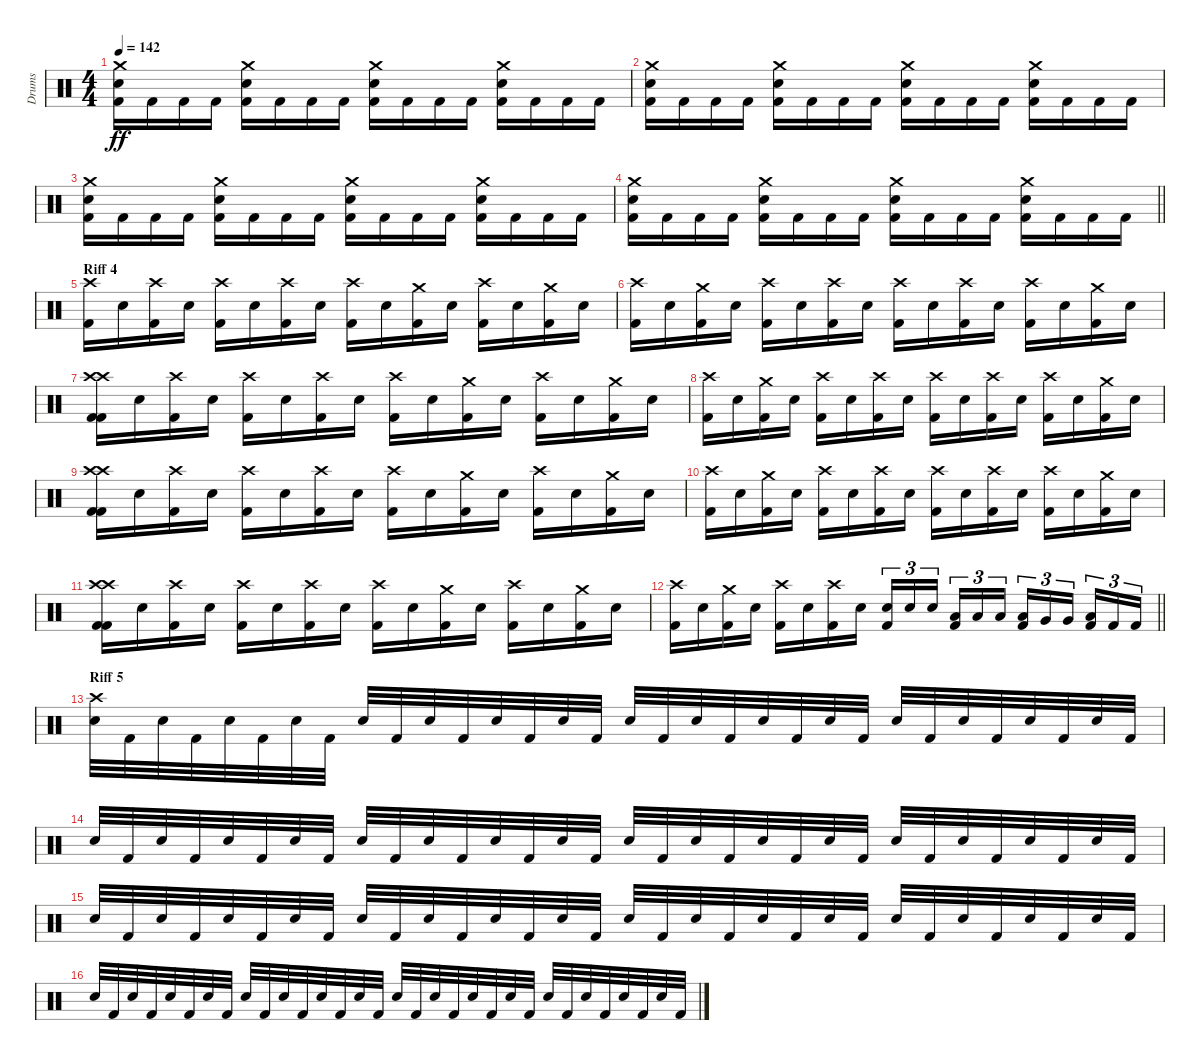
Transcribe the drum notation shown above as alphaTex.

\track ("Drums" "Drums") {instrument percussion}
\staff {score}
\articulation defaults
\ts (4 4)
\tempo 142
\clef neutral
\ks c
("Crash medium (hit)" "Kick (hit) 2" "Snare (hit) 2").16{dy ff} "Kick (hit) 2".16 "Kick (hit) 2".16 "Kick (hit) 2".16 ("Crash medium (hit)" "Kick (hit) 2" "Snare (hit) 2").16 "Kick (hit) 2".16 "Kick (hit) 2".16 "Kick (hit) 2".16 ("Crash medium (hit)" "Kick (hit) 2" "Snare (hit) 2").16 "Kick (hit) 2".16 "Kick (hit) 2".16 "Kick (hit) 2".16 ("Crash medium (hit)" "Kick (hit) 2" "Snare (hit) 2").16 "Kick (hit) 2".16 "Kick (hit) 2".16 "Kick (hit) 2".16 |
("Crash medium (hit)" "Kick (hit) 2" "Snare (hit) 2").16 "Kick (hit) 2".16 "Kick (hit) 2".16 "Kick (hit) 2".16 ("Crash medium (hit)" "Kick (hit) 2" "Snare (hit) 2").16 "Kick (hit) 2".16 "Kick (hit) 2".16 "Kick (hit) 2".16 ("Crash medium (hit)" "Kick (hit) 2" "Snare (hit) 2").16 "Kick (hit) 2".16 "Kick (hit) 2".16 "Kick (hit) 2".16 ("Crash medium (hit)" "Kick (hit) 2" "Snare (hit) 2").16 "Kick (hit) 2".16 "Kick (hit) 2".16 "Kick (hit) 2".16 |
("Crash medium (hit)" "Kick (hit) 2" "Snare (hit) 2").16 "Kick (hit) 2".16 "Kick (hit) 2".16 "Kick (hit) 2".16 ("Crash medium (hit)" "Kick (hit) 2" "Snare (hit) 2").16 "Kick (hit) 2".16 "Kick (hit) 2".16 "Kick (hit) 2".16 ("Crash medium (hit)" "Kick (hit) 2" "Snare (hit) 2").16 "Kick (hit) 2".16 "Kick (hit) 2".16 "Kick (hit) 2".16 ("Crash medium (hit)" "Kick (hit) 2" "Snare (hit) 2").16 "Kick (hit) 2".16 "Kick (hit) 2".16 "Kick (hit) 2".16 |
\barLineRight lightlight
("Crash medium (hit)" "Kick (hit) 2" "Snare (hit) 2").16 "Kick (hit) 2".16 "Kick (hit) 2".16 "Kick (hit) 2".16 ("Crash medium (hit)" "Kick (hit) 2" "Snare (hit) 2").16 "Kick (hit) 2".16 "Kick (hit) 2".16 "Kick (hit) 2".16 ("Crash medium (hit)" "Kick (hit) 2" "Snare (hit) 2").16 "Kick (hit) 2".16 "Kick (hit) 2".16 "Kick (hit) 2".16 ("Crash medium (hit)" "Kick (hit) 2" "Snare (hit) 2").16 "Kick (hit) 2".16 "Kick (hit) 2".16 "Kick (hit) 2".16 |
\section ("" "Riff 4")
("Crash high (hit)" "Kick (hit) 2").16 "Snare (hit) 2".16 ("Crash high (hit)" "Kick (hit) 2").16 "Snare (hit) 2".16 ("Crash high (hit)" "Kick (hit) 2").16 "Snare (hit) 2".16 ("Crash high (hit)" "Kick (hit) 2").16 "Snare (hit) 2".16 ("Crash high (hit)" "Kick (hit) 2").16 "Snare (hit) 2".16 ("Crash medium (hit)" "Kick (hit) 2").16 "Snare (hit) 2".16 ("Crash high (hit)" "Kick (hit) 2").16 "Snare (hit) 2".16 ("Crash medium (hit)" "Kick (hit) 2").16 "Snare (hit) 2".16 |
("Crash high (hit)" "Kick (hit) 2").16 "Snare (hit) 2".16 ("Crash medium (hit)" "Kick (hit) 2").16 "Snare (hit) 2".16 ("Crash high (hit)" "Kick (hit) 2").16 "Snare (hit) 2".16 ("Crash high (hit)" "Kick (hit) 2").16 "Snare (hit) 2".16 ("Crash high (hit)" "Kick (hit) 2").16 "Snare (hit) 2".16 ("Crash high (hit)" "Kick (hit) 2").16 "Snare (hit) 2".16 ("Crash high (hit)" "Kick (hit) 2").16 "Snare (hit) 2".16 ("Crash medium (hit)" "Kick (hit) 2").16 "Snare (hit) 2".16 |
("Crash high (hit)" "Kick (hit) 2" "Crash high (hit)" "Kick (hit) 2").16 "Snare (hit) 2".16 ("Crash high (hit)" "Kick (hit) 2").16 "Snare (hit) 2".16 ("Crash high (hit)" "Kick (hit) 2").16 "Snare (hit) 2".16 ("Crash high (hit)" "Kick (hit) 2").16 "Snare (hit) 2".16 ("Crash high (hit)" "Kick (hit) 2").16 "Snare (hit) 2".16 ("Crash medium (hit)" "Kick (hit) 2").16 "Snare (hit) 2".16 ("Crash high (hit)" "Kick (hit) 2").16 "Snare (hit) 2".16 ("Crash medium (hit)" "Kick (hit) 2").16 "Snare (hit) 2".16 |
("Crash high (hit)" "Kick (hit) 2").16 "Snare (hit) 2".16 ("Crash medium (hit)" "Kick (hit) 2").16 "Snare (hit) 2".16 ("Crash high (hit)" "Kick (hit) 2").16 "Snare (hit) 2".16 ("Crash high (hit)" "Kick (hit) 2").16 "Snare (hit) 2".16 ("Crash high (hit)" "Kick (hit) 2").16 "Snare (hit) 2".16 ("Crash high (hit)" "Kick (hit) 2").16 "Snare (hit) 2".16 ("Crash high (hit)" "Kick (hit) 2").16 "Snare (hit) 2".16 ("Crash medium (hit)" "Kick (hit) 2").16 "Snare (hit) 2".16 |
("Crash high (hit)" "Kick (hit) 2" "Crash high (hit)" "Kick (hit) 2").16 "Snare (hit) 2".16 ("Crash high (hit)" "Kick (hit) 2").16 "Snare (hit) 2".16 ("Crash high (hit)" "Kick (hit) 2").16 "Snare (hit) 2".16 ("Crash high (hit)" "Kick (hit) 2").16 "Snare (hit) 2".16 ("Crash high (hit)" "Kick (hit) 2").16 "Snare (hit) 2".16 ("Crash medium (hit)" "Kick (hit) 2").16 "Snare (hit) 2".16 ("Crash high (hit)" "Kick (hit) 2").16 "Snare (hit) 2".16 ("Crash medium (hit)" "Kick (hit) 2").16 "Snare (hit) 2".16 |
("Crash high (hit)" "Kick (hit) 2").16 "Snare (hit) 2".16 ("Crash medium (hit)" "Kick (hit) 2").16 "Snare (hit) 2".16 ("Crash high (hit)" "Kick (hit) 2").16 "Snare (hit) 2".16 ("Crash high (hit)" "Kick (hit) 2").16 "Snare (hit) 2".16 ("Crash high (hit)" "Kick (hit) 2").16 "Snare (hit) 2".16 ("Crash high (hit)" "Kick (hit) 2").16 "Snare (hit) 2".16 ("Crash high (hit)" "Kick (hit) 2").16 "Snare (hit) 2".16 ("Crash medium (hit)" "Kick (hit) 2").16 "Snare (hit) 2".16 |
("Crash high (hit)" "Kick (hit) 2" "Crash high (hit)" "Kick (hit) 2").16 "Snare (hit) 2".16 ("Crash high (hit)" "Kick (hit) 2").16 "Snare (hit) 2".16 ("Crash high (hit)" "Kick (hit) 2").16 "Snare (hit) 2".16 ("Crash high (hit)" "Kick (hit) 2").16 "Snare (hit) 2".16 ("Crash high (hit)" "Kick (hit) 2").16 "Snare (hit) 2".16 ("Crash medium (hit)" "Kick (hit) 2").16 "Snare (hit) 2".16 ("Crash high (hit)" "Kick (hit) 2").16 "Snare (hit) 2".16 ("Crash medium (hit)" "Kick (hit) 2").16 "Snare (hit) 2".16 |
\barLineRight lightlight
("Crash high (hit)" "Kick (hit) 2").16 "Snare (hit) 2".16 ("Crash medium (hit)" "Kick (hit) 2").16 "Snare (hit) 2".16 ("Crash high (hit)" "Kick (hit) 2").16 "Snare (hit) 2".16 ("Crash high (hit)" "Kick (hit) 2").16 "Snare (hit) 2".16 ("Kick (hit) 2" "Snare (hit) 2").16{tu (3 2)} "Snare (hit) 2".16{tu (3 2)} "Snare (hit) 2".16{tu (3 2) beam splitsecondary} ("Kick (hit) 2" "Low Tom (hit)").16{tu (3 2)} "Low Tom (hit)".16{tu (3 2)} "Low Tom (hit)".16{tu (3 2)} ("Kick (hit) 2" "Low Tom (hit)").16{tu (3 2)} "Very Low Tom (hit)".16{tu (3 2)} "Very Low Tom (hit)".16{tu (3 2) beam splitsecondary} ("Kick (hit) 2" "Low Floor Tom (hit)").16{tu (3 2)} "Kick (hit) 2".16{tu (3 2)} "Kick (hit) 2".16{tu (3 2)} |
\section ("" "Riff 5")
("Crash high (hit)" "Snare (hit) 2").32 "Kick (hit) 2".32 "Snare (hit) 2".32 "Kick (hit) 2".32 "Snare (hit) 2".32 "Kick (hit) 2".32 "Snare (hit) 2".32 "Kick (hit) 2".32 "Snare (hit) 2".32 "Kick (hit) 2".32 "Snare (hit) 2".32 "Kick (hit) 2".32 "Snare (hit) 2".32 "Kick (hit) 2".32 "Snare (hit) 2".32 "Kick (hit) 2".32 "Snare (hit) 2".32 "Kick (hit) 2".32 "Snare (hit) 2".32 "Kick (hit) 2".32 "Snare (hit) 2".32 "Kick (hit) 2".32 "Snare (hit) 2".32 "Kick (hit) 2".32 "Snare (hit) 2".32 "Kick (hit) 2".32 "Snare (hit) 2".32 "Kick (hit) 2".32 "Snare (hit) 2".32 "Kick (hit) 2".32 "Snare (hit) 2".32 "Kick (hit) 2".32 |
"Snare (hit) 2".32 "Kick (hit) 2".32 "Snare (hit) 2".32 "Kick (hit) 2".32 "Snare (hit) 2".32 "Kick (hit) 2".32 "Snare (hit) 2".32 "Kick (hit) 2".32 "Snare (hit) 2".32 "Kick (hit) 2".32 "Snare (hit) 2".32 "Kick (hit) 2".32 "Snare (hit) 2".32 "Kick (hit) 2".32 "Snare (hit) 2".32 "Kick (hit) 2".32 "Snare (hit) 2".32 "Kick (hit) 2".32 "Snare (hit) 2".32 "Kick (hit) 2".32 "Snare (hit) 2".32 "Kick (hit) 2".32 "Snare (hit) 2".32 "Kick (hit) 2".32 "Snare (hit) 2".32 "Kick (hit) 2".32 "Snare (hit) 2".32 "Kick (hit) 2".32 "Snare (hit) 2".32 "Kick (hit) 2".32 "Snare (hit) 2".32 "Kick (hit) 2".32 |
"Snare (hit) 2".32 "Kick (hit) 2".32 "Snare (hit) 2".32 "Kick (hit) 2".32 "Snare (hit) 2".32 "Kick (hit) 2".32 "Snare (hit) 2".32 "Kick (hit) 2".32 "Snare (hit) 2".32 "Kick (hit) 2".32 "Snare (hit) 2".32 "Kick (hit) 2".32 "Snare (hit) 2".32 "Kick (hit) 2".32 "Snare (hit) 2".32 "Kick (hit) 2".32 "Snare (hit) 2".32 "Kick (hit) 2".32 "Snare (hit) 2".32 "Kick (hit) 2".32 "Snare (hit) 2".32 "Kick (hit) 2".32 "Snare (hit) 2".32 "Kick (hit) 2".32 "Snare (hit) 2".32 "Kick (hit) 2".32 "Snare (hit) 2".32 "Kick (hit) 2".32 "Snare (hit) 2".32 "Kick (hit) 2".32 "Snare (hit) 2".32 "Kick (hit) 2".32 |
"Snare (hit) 2".32 "Kick (hit) 2".32 "Snare (hit) 2".32 "Kick (hit) 2".32 "Snare (hit) 2".32 "Kick (hit) 2".32 "Snare (hit) 2".32 "Kick (hit) 2".32 "Snare (hit) 2".32 "Kick (hit) 2".32 "Snare (hit) 2".32 "Kick (hit) 2".32 "Snare (hit) 2".32 "Kick (hit) 2".32 "Snare (hit) 2".32 "Kick (hit) 2".32 "Snare (hit) 2".32 "Kick (hit) 2".32 "Snare (hit) 2".32 "Kick (hit) 2".32 "Snare (hit) 2".32 "Kick (hit) 2".32 "Snare (hit) 2".32 "Kick (hit) 2".32 "Snare (hit) 2".32 "Kick (hit) 2".32 "Snare (hit) 2".32 "Kick (hit) 2".32 "Snare (hit) 2".32 "Kick (hit) 2".32 "Snare (hit) 2".32 "Kick (hit) 2".32
